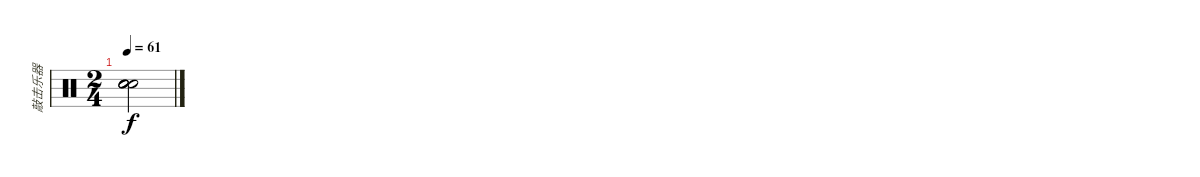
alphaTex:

\track ("敲击乐器" "敲击乐器") {instrument percussion}
\staff {score}
\articulation defaults
\ts (2 4)
\tempo 61
\clef neutral
\ks c
("Snare (hit)"{t} "Snare (hit)"{t} "Snare (hit)"{t} "Snare (hit)"{t}).2{dy f}
